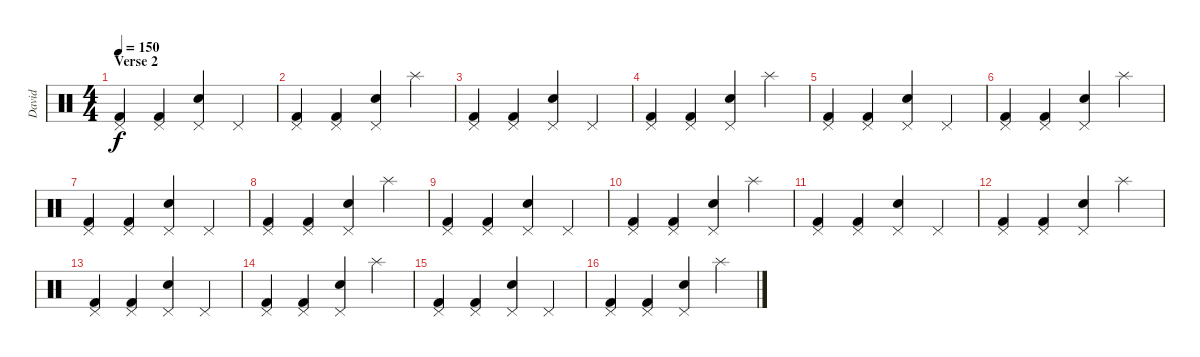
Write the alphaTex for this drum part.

\track ("David" "David") {instrument percussion}
\staff {score}
\articulation defaults
\ts (4 4)
\section ("" "Verse 2")
\tempo 150
\clef neutral
\ks c
("Pedal Hi-Hat (hit)" "Kick (hit) 2").4{dy f} ("Pedal Hi-Hat (hit)" "Kick (hit) 2").4 ("Pedal Hi-Hat (hit)" "Hand Clap (hit)").4 "Pedal Hi-Hat (hit)".4 |
("Pedal Hi-Hat (hit)" "Kick (hit) 2").4 ("Pedal Hi-Hat (hit)" "Kick (hit) 2").4 ("Pedal Hi-Hat (hit)" "Hand Clap (hit)").4 "Splash (hit)".4 |
("Pedal Hi-Hat (hit)" "Kick (hit) 2").4 ("Pedal Hi-Hat (hit)" "Kick (hit) 2").4 ("Pedal Hi-Hat (hit)" "Hand Clap (hit)").4 "Pedal Hi-Hat (hit)".4 |
("Pedal Hi-Hat (hit)" "Kick (hit) 2").4 ("Pedal Hi-Hat (hit)" "Kick (hit) 2").4 ("Pedal Hi-Hat (hit)" "Hand Clap (hit)").4 "Splash (hit)".4 |
("Pedal Hi-Hat (hit)" "Kick (hit) 2").4 ("Pedal Hi-Hat (hit)" "Kick (hit) 2").4 ("Pedal Hi-Hat (hit)" "Hand Clap (hit)").4 "Pedal Hi-Hat (hit)".4 |
("Pedal Hi-Hat (hit)" "Kick (hit) 2").4 ("Pedal Hi-Hat (hit)" "Kick (hit) 2").4 ("Pedal Hi-Hat (hit)" "Hand Clap (hit)").4 "Splash (hit)".4 |
("Pedal Hi-Hat (hit)" "Kick (hit) 2").4 ("Pedal Hi-Hat (hit)" "Kick (hit) 2").4 ("Pedal Hi-Hat (hit)" "Hand Clap (hit)").4 "Pedal Hi-Hat (hit)".4 |
("Pedal Hi-Hat (hit)" "Kick (hit) 2").4 ("Pedal Hi-Hat (hit)" "Kick (hit) 2").4 ("Pedal Hi-Hat (hit)" "Hand Clap (hit)").4 "Splash (hit)".4 |
("Pedal Hi-Hat (hit)" "Kick (hit) 2").4 ("Pedal Hi-Hat (hit)" "Kick (hit) 2").4 ("Pedal Hi-Hat (hit)" "Hand Clap (hit)").4 "Pedal Hi-Hat (hit)".4 |
("Pedal Hi-Hat (hit)" "Kick (hit) 2").4 ("Pedal Hi-Hat (hit)" "Kick (hit) 2").4 ("Pedal Hi-Hat (hit)" "Hand Clap (hit)").4 "Splash (hit)".4 |
("Pedal Hi-Hat (hit)" "Kick (hit) 2").4 ("Pedal Hi-Hat (hit)" "Kick (hit) 2").4 ("Pedal Hi-Hat (hit)" "Hand Clap (hit)").4 "Pedal Hi-Hat (hit)".4 |
("Pedal Hi-Hat (hit)" "Kick (hit) 2").4 ("Pedal Hi-Hat (hit)" "Kick (hit) 2").4 ("Pedal Hi-Hat (hit)" "Hand Clap (hit)").4 "Splash (hit)".4 |
("Pedal Hi-Hat (hit)" "Kick (hit) 2").4 ("Pedal Hi-Hat (hit)" "Kick (hit) 2").4 ("Pedal Hi-Hat (hit)" "Hand Clap (hit)").4 "Pedal Hi-Hat (hit)".4 |
("Pedal Hi-Hat (hit)" "Kick (hit) 2").4 ("Pedal Hi-Hat (hit)" "Kick (hit) 2").4 ("Pedal Hi-Hat (hit)" "Hand Clap (hit)").4 "Splash (hit)".4 |
("Pedal Hi-Hat (hit)" "Kick (hit) 2").4 ("Pedal Hi-Hat (hit)" "Kick (hit) 2").4 ("Pedal Hi-Hat (hit)" "Hand Clap (hit)").4 "Pedal Hi-Hat (hit)".4 |
("Pedal Hi-Hat (hit)" "Kick (hit) 2").4 ("Pedal Hi-Hat (hit)" "Kick (hit) 2").4 ("Pedal Hi-Hat (hit)" "Hand Clap (hit)").4 "Splash (hit)".4
